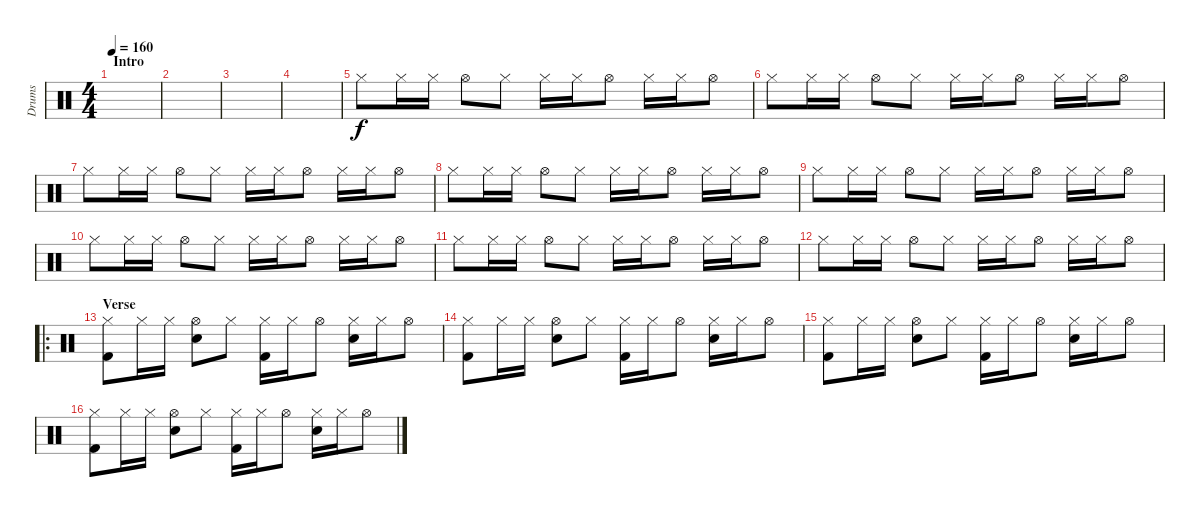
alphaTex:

\track ("Drums" "Drums") {instrument percussion}
\staff {score}
\articulation defaults
\ts (4 4)
\section ("" "Intro")
\tempo 160
\clef neutral
\ks c
|
|
|
|
"Hi-Hat (closed)".8 "Hi-Hat (closed)".16 "Hi-Hat (closed)".16 "Hi-Hat (open)".8 "Hi-Hat (closed)".8 "Hi-Hat (closed)".16 "Hi-Hat (closed)".16 "Hi-Hat (open)".8 "Hi-Hat (closed)".16 "Hi-Hat (closed)".16 "Hi-Hat (open)".8 |
"Hi-Hat (closed)".8 "Hi-Hat (closed)".16 "Hi-Hat (closed)".16 "Hi-Hat (open)".8 "Hi-Hat (closed)".8 "Hi-Hat (closed)".16 "Hi-Hat (closed)".16 "Hi-Hat (open)".8 "Hi-Hat (closed)".16 "Hi-Hat (closed)".16 "Hi-Hat (open)".8 |
"Hi-Hat (closed)".8 "Hi-Hat (closed)".16 "Hi-Hat (closed)".16 "Hi-Hat (open)".8 "Hi-Hat (closed)".8 "Hi-Hat (closed)".16 "Hi-Hat (closed)".16 "Hi-Hat (open)".8 "Hi-Hat (closed)".16 "Hi-Hat (closed)".16 "Hi-Hat (open)".8 |
"Hi-Hat (closed)".8 "Hi-Hat (closed)".16 "Hi-Hat (closed)".16 "Hi-Hat (open)".8 "Hi-Hat (closed)".8 "Hi-Hat (closed)".16 "Hi-Hat (closed)".16 "Hi-Hat (open)".8 "Hi-Hat (closed)".16 "Hi-Hat (closed)".16 "Hi-Hat (open)".8 |
"Hi-Hat (closed)".8 "Hi-Hat (closed)".16 "Hi-Hat (closed)".16 "Hi-Hat (open)".8 "Hi-Hat (closed)".8 "Hi-Hat (closed)".16 "Hi-Hat (closed)".16 "Hi-Hat (open)".8 "Hi-Hat (closed)".16 "Hi-Hat (closed)".16 "Hi-Hat (open)".8 |
"Hi-Hat (closed)".8 "Hi-Hat (closed)".16 "Hi-Hat (closed)".16 "Hi-Hat (open)".8 "Hi-Hat (closed)".8 "Hi-Hat (closed)".16 "Hi-Hat (closed)".16 "Hi-Hat (open)".8 "Hi-Hat (closed)".16 "Hi-Hat (closed)".16 "Hi-Hat (open)".8 |
"Hi-Hat (closed)".8 "Hi-Hat (closed)".16 "Hi-Hat (closed)".16 "Hi-Hat (open)".8 "Hi-Hat (closed)".8 "Hi-Hat (closed)".16 "Hi-Hat (closed)".16 "Hi-Hat (open)".8 "Hi-Hat (closed)".16 "Hi-Hat (closed)".16 "Hi-Hat (open)".8 |
"Hi-Hat (closed)".8 "Hi-Hat (closed)".16 "Hi-Hat (closed)".16 "Hi-Hat (open)".8 "Hi-Hat (closed)".8 "Hi-Hat (closed)".16 "Hi-Hat (closed)".16 "Hi-Hat (open)".8 "Hi-Hat (closed)".16 "Hi-Hat (closed)".16 "Hi-Hat (open)".8 |
\ro
\section ("" "Verse")
("Hi-Hat (closed)" "Kick (hit) 2").8 "Hi-Hat (closed)".16 "Hi-Hat (closed)".16 ("Hi-Hat (open)" "Snare (hit) 2").8 "Hi-Hat (closed)".8 ("Hi-Hat (closed)" "Kick (hit) 2").16 "Hi-Hat (closed)".16 "Hi-Hat (open)".8 ("Hi-Hat (closed)" "Snare (hit) 2").16 "Hi-Hat (closed)".16 "Hi-Hat (open)".8 |
("Hi-Hat (closed)" "Kick (hit) 2").8 "Hi-Hat (closed)".16 "Hi-Hat (closed)".16 ("Hi-Hat (open)" "Snare (hit) 2").8 "Hi-Hat (closed)".8 ("Hi-Hat (closed)" "Kick (hit) 2").16 "Hi-Hat (closed)".16 "Hi-Hat (open)".8 ("Hi-Hat (closed)" "Snare (hit) 2").16 "Hi-Hat (closed)".16 "Hi-Hat (open)".8 |
("Hi-Hat (closed)" "Kick (hit) 2").8 "Hi-Hat (closed)".16 "Hi-Hat (closed)".16 ("Hi-Hat (open)" "Snare (hit) 2").8 "Hi-Hat (closed)".8 ("Hi-Hat (closed)" "Kick (hit) 2").16 "Hi-Hat (closed)".16 "Hi-Hat (open)".8 ("Hi-Hat (closed)" "Snare (hit) 2").16 "Hi-Hat (closed)".16 "Hi-Hat (open)".8 |
("Hi-Hat (closed)" "Kick (hit) 2").8 "Hi-Hat (closed)".16 "Hi-Hat (closed)".16 ("Hi-Hat (open)" "Snare (hit) 2").8 "Hi-Hat (closed)".8 ("Hi-Hat (closed)" "Kick (hit) 2").16 "Hi-Hat (closed)".16 "Hi-Hat (open)".8 ("Hi-Hat (closed)" "Snare (hit) 2").16 "Hi-Hat (closed)".16 "Hi-Hat (open)".8
